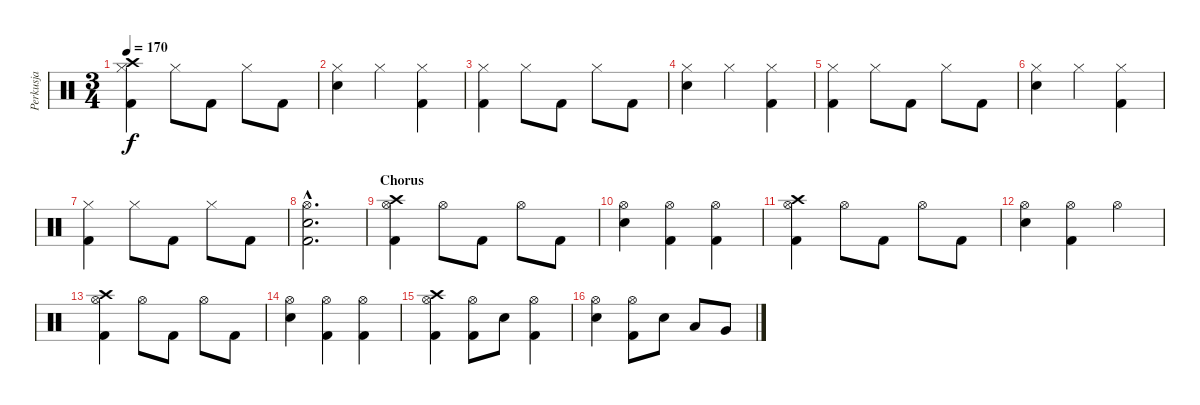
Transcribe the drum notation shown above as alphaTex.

\track ("Perkusja" "Perkusja") {instrument percussion}
\staff {score}
\articulation defaults
\ts (3 4)
\tempo 170
\clef neutral
\ks c
("Kick (hit) 2" "Hi-Hat (closed)" "Crash high (hit)").4{dy f} "Hi-Hat (closed)".8 "Kick (hit) 2".8 "Hi-Hat (closed)".8 "Kick (hit) 2".8 |
("Snare (hit) 2" "Hi-Hat (closed)").4 "Hi-Hat (closed)".4 ("Kick (hit) 2" "Hi-Hat (closed)").4 |
("Kick (hit) 2" "Hi-Hat (closed)").4 "Hi-Hat (closed)".8 "Kick (hit) 2".8 "Hi-Hat (closed)".8 "Kick (hit) 2".8 |
("Snare (hit) 2" "Hi-Hat (closed)").4 "Hi-Hat (closed)".4 ("Kick (hit) 2" "Hi-Hat (closed)").4 |
("Kick (hit) 2" "Hi-Hat (closed)").4 "Hi-Hat (closed)".8 "Kick (hit) 2".8 "Hi-Hat (closed)".8 "Kick (hit) 2".8 |
("Snare (hit) 2" "Hi-Hat (closed)").4 "Hi-Hat (closed)".4 ("Kick (hit) 2" "Hi-Hat (closed)").4 |
("Kick (hit) 2" "Hi-Hat (closed)").4 "Hi-Hat (closed)".8 "Kick (hit) 2".8 "Hi-Hat (closed)".8 "Kick (hit) 2".8 |
("Snare (hit) 2"{hac} "Hi-Hat (open)"{hac} "Kick (hit) 2"{hac}).2{d} |
\section ("" "Chorus")
("Hi-Hat (open)" "Kick (hit) 2" "Crash high (hit)").4 "Hi-Hat (open)".8 "Kick (hit) 2".8 "Hi-Hat (open)".8 "Kick (hit) 2".8 |
("Hi-Hat (open)" "Snare (hit) 2").4 ("Hi-Hat (open)" "Kick (hit) 2").4 ("Hi-Hat (open)" "Kick (hit) 2").4 |
("Hi-Hat (open)" "Kick (hit) 2" "Crash high (hit)").4 "Hi-Hat (open)".8 "Kick (hit) 2".8 "Hi-Hat (open)".8 "Kick (hit) 2".8 |
("Hi-Hat (open)" "Snare (hit) 2").4 ("Hi-Hat (open)" "Kick (hit) 2").4 "Hi-Hat (open)".4 |
("Hi-Hat (open)" "Kick (hit) 2" "Crash high (hit)").4 "Hi-Hat (open)".8 "Kick (hit) 2".8 "Hi-Hat (open)".8 "Kick (hit) 2".8 |
("Hi-Hat (open)" "Snare (hit) 2").4 ("Hi-Hat (open)" "Kick (hit) 2").4 ("Hi-Hat (open)" "Kick (hit) 2").4 |
("Hi-Hat (open)" "Kick (hit) 2" "Crash high (hit)").4 ("Hi-Hat (open)" "Kick (hit) 2").8 "Snare (hit) 2".8 ("Hi-Hat (open)" "Kick (hit) 2").4 |
("Hi-Hat (open)" "Snare (hit) 2").4 ("Hi-Hat (open)" "Kick (hit) 2").8 "Snare (hit) 2".8 "Low Tom (hit)".8 "Very Low Tom (hit)".8
